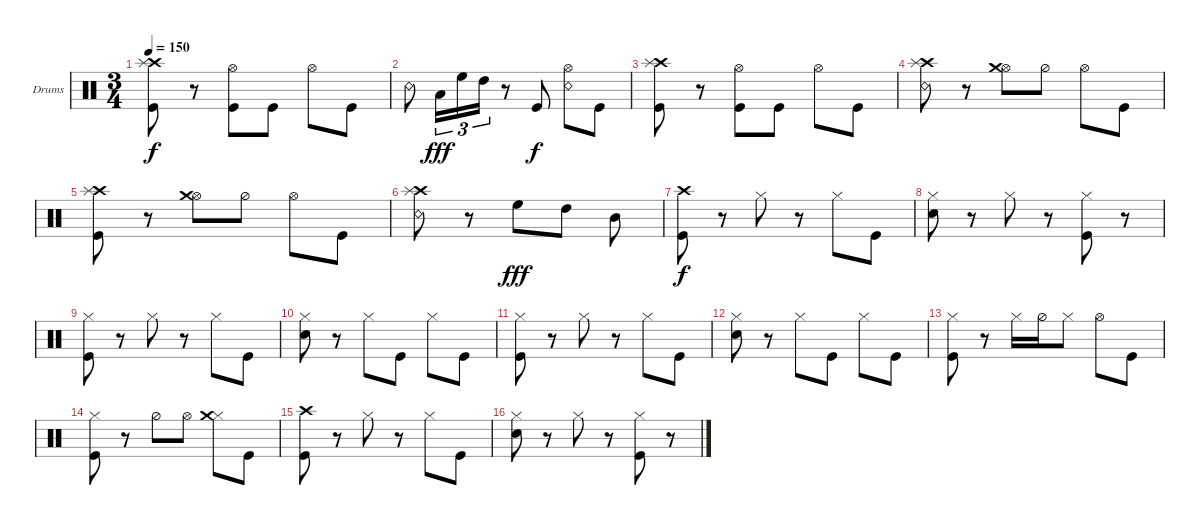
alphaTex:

\defaultSystemsLayout 4
\bracketExtendMode groupsimilarinstruments
\firstSystemTrackNameOrientation horizontal
\otherSystemsTrackNameOrientation horizontal
\track ("Scott" "Drums") {instrument percussion}
\staff {score}
\articulation defaults
\ts (3 4)
\tempo 150
\clef neutral
\scale
0.333333
\ks c
("Kick (hit)" "Crash high (hit)" "Splash (hit)").8{dy f} r.8 ("Kick (hit)" "Hi-Hat (open)").8 "Kick (hit)".8 "Hi-Hat (open)".8 "Kick (hit)".8 |
\scale
0.333333 "Snare (rim shot)".8 "Low Tom (hit)".16{tu (3 2) dy fff} "High Floor Tom (hit)".16{tu (3 2)} "High Tom (hit)".16{tu (3 2)} r.8 "Kick (hit)".8{dy f} ("Snare (rim shot)" "Hi-Hat (open)").8 "Kick (hit)".8 |
\scale
0.333333 ("Kick (hit)" "Crash high (hit)" "Splash (hit)").8 r.8 ("Kick (hit)" "Hi-Hat (open)").8 "Kick (hit)".8 "Hi-Hat (open)".8 "Kick (hit)".8 |
\scale
0.333333 ("Snare (rim shot)" "Crash high (hit)" "Splash (hit)").8 r.8 ("Hi-Hat (open)" "Crash medium (hit)").8 "Hi-Hat (half)".8 "Hi-Hat (open)".8 "Kick (hit)".8 |
\scale
0.333333 ("Kick (hit)" "Crash high (hit)" "Splash (hit)").8 r.8 ("Hi-Hat (open)" "Crash medium (hit)").8 "Hi-Hat (half)".8 "Hi-Hat (open)".8 "Kick (hit)".8 |
\scale
0.333333 ("Snare (rim shot)" "Crash high (hit)" "Splash (hit)").8 r.8 "High Floor Tom (hit)".8{dy fff} "High Tom (hit)".8 "Mid Tom (hit)".8 |
\scale
0.333333 ("Kick (hit)" "Crash high (hit)").8{dy f} r.8 "Hi-Hat (closed)".8 r.8 "Hi-Hat (closed)".8 "Kick (hit)".8 |
\scale
0.333333 ("Hi-Hat (closed)" "Snare (hit) 2").8 r.8 "Hi-Hat (closed)".8 r.8 ("Hi-Hat (closed)" "Kick (hit)").8 r.8 |
\scale
0.333333 ("Hi-Hat (closed)" "Kick (hit)").8 r.8 "Hi-Hat (closed)".8 r.8 "Hi-Hat (closed)".8 "Kick (hit)".8 |
\scale
0.333333 ("Snare (hit) 2" "Hi-Hat (closed)").8 r.8 "Hi-Hat (closed)".8 "Kick (hit)".8 "Hi-Hat (closed)".8 "Kick (hit)".8 |
\scale
0.333333 ("Hi-Hat (closed)" "Kick (hit)").8 r.8 "Hi-Hat (closed)".8 r.8 "Hi-Hat (closed)".8 "Kick (hit)".8 |
\scale
0.333333 ("Snare (hit) 2" "Hi-Hat (closed)").8 r.8 "Hi-Hat (closed)".8 "Kick (hit)".8 "Hi-Hat (closed)".8 "Kick (hit)".8 |
\scale
0.333333 ("Hi-Hat (closed)" "Kick (hit)").8 r.8 "Hi-Hat (closed)".16 "Hi-Hat (half)".16 "Hi-Hat (closed)".8 "Hi-Hat (open)".8 "Kick (hit)".8 |
\scale
0.333333 ("Kick (hit)" "Hi-Hat (closed)").8 r.8 "Hi-Hat (half)".8 "Hi-Hat (open)".8 ("Hi-Hat (closed)" "Crash medium (hit)").8 "Kick (hit)".8 |
\scale
0.333333 ("Kick (hit)" "Crash high (hit)").8 r.8 "Hi-Hat (closed)".8 r.8 "Hi-Hat (closed)".8 "Kick (hit)".8 |
\scale
0.333333 ("Hi-Hat (closed)" "Snare (hit) 2").8 r.8 "Hi-Hat (closed)".8 r.8 ("Hi-Hat (closed)" "Kick (hit)").8 r.8
